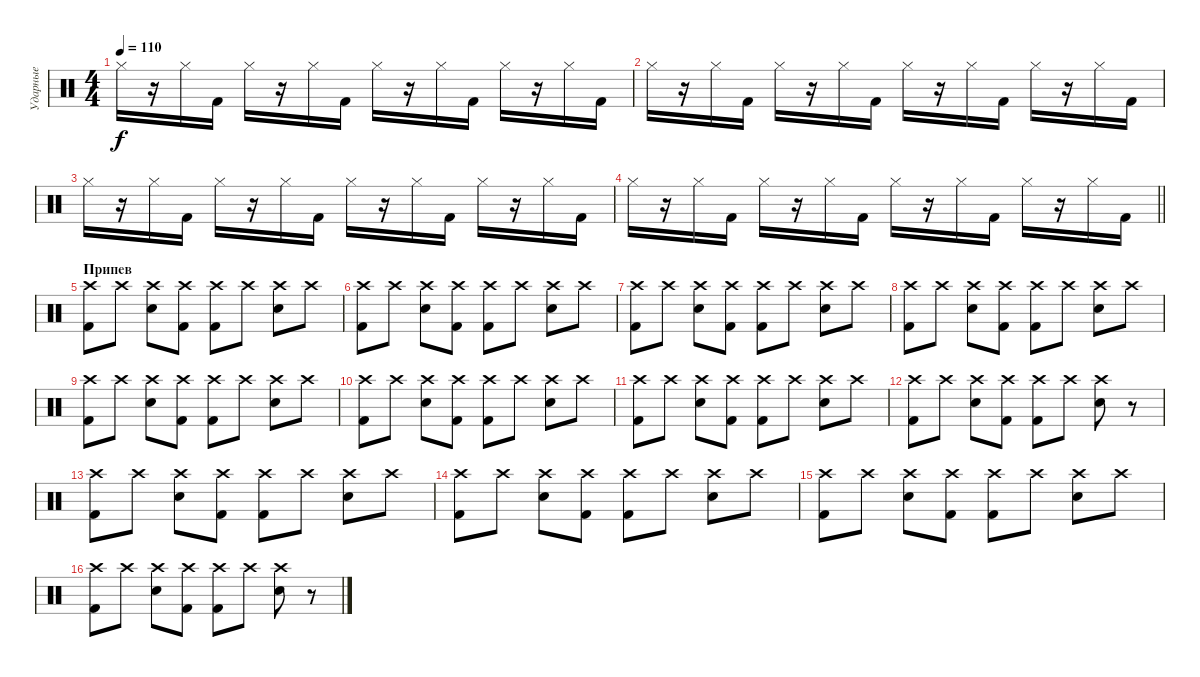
\track ("Ударные" "Ударные") {instrument percussion}
\staff {score}
\articulation defaults
\ts (4 4)
\tempo 110
\clef neutral
\ks c "Hi-Hat (closed)".16{dy f}
r.16 "Hi-Hat (closed)".16 "Kick (hit) 2".16 "Hi-Hat (closed)".16 r.16 "Hi-Hat (closed)".16 "Kick (hit) 2".16 "Hi-Hat (closed)".16 r.16 "Hi-Hat (closed)".16 "Kick (hit) 2".16 "Hi-Hat (closed)".16 r.16 "Hi-Hat (closed)".16 "Kick (hit) 2".16 |
"Hi-Hat (closed)".16 r.16 "Hi-Hat (closed)".16 "Kick (hit) 2".16 "Hi-Hat (closed)".16 r.16 "Hi-Hat (closed)".16 "Kick (hit) 2".16 "Hi-Hat (closed)".16 r.16 "Hi-Hat (closed)".16 "Kick (hit) 2".16 "Hi-Hat (closed)".16 r.16 "Hi-Hat (closed)".16 "Kick (hit) 2".16 |
"Hi-Hat (closed)".16 r.16 "Hi-Hat (closed)".16 "Kick (hit) 2".16 "Hi-Hat (closed)".16 r.16 "Hi-Hat (closed)".16 "Kick (hit) 2".16 "Hi-Hat (closed)".16 r.16 "Hi-Hat (closed)".16 "Kick (hit) 2".16 "Hi-Hat (closed)".16 r.16 "Hi-Hat (closed)".16 "Kick (hit) 2".16 |
\barLineRight lightlight "Hi-Hat (closed)".16
r.16 "Hi-Hat (closed)".16 "Kick (hit) 2".16 "Hi-Hat (closed)".16 r.16 "Hi-Hat (closed)".16 "Kick (hit) 2".16 "Hi-Hat (closed)".16 r.16 "Hi-Hat (closed)".16 "Kick (hit) 2".16 "Hi-Hat (closed)".16 r.16 "Hi-Hat (closed)".16 "Kick (hit) 2".16 |
\section ("" "Припев")
("Crash high (hit)" "Kick (hit) 2").8 "Crash high (hit)".8 ("Crash high (hit)" "Electric Snare (hit)").8 ("Crash high (hit)" "Kick (hit) 2").8 ("Crash high (hit)" "Kick (hit) 2").8 "Crash high (hit)".8 ("Crash high (hit)" "Electric Snare (hit)").8 "Crash high (hit)".8 |
("Crash high (hit)" "Kick (hit) 2").8 "Crash high (hit)".8 ("Crash high (hit)" "Electric Snare (hit)").8 ("Crash high (hit)" "Kick (hit) 2").8 ("Crash high (hit)" "Kick (hit) 2").8 "Crash high (hit)".8 ("Crash high (hit)" "Electric Snare (hit)").8 "Crash high (hit)".8 |
("Crash high (hit)" "Kick (hit) 2").8 "Crash high (hit)".8 ("Crash high (hit)" "Electric Snare (hit)").8 ("Crash high (hit)" "Kick (hit) 2").8 ("Crash high (hit)" "Kick (hit) 2").8 "Crash high (hit)".8 ("Crash high (hit)" "Electric Snare (hit)").8 "Crash high (hit)".8 |
("Crash high (hit)" "Kick (hit) 2").8 "Crash high (hit)".8 ("Crash high (hit)" "Electric Snare (hit)").8 ("Crash high (hit)" "Kick (hit) 2").8 ("Crash high (hit)" "Kick (hit) 2").8 "Crash high (hit)".8 ("Crash high (hit)" "Electric Snare (hit)").8 "Crash high (hit)".8 |
("Crash high (hit)" "Kick (hit) 2").8 "Crash high (hit)".8 ("Crash high (hit)" "Electric Snare (hit)").8 ("Crash high (hit)" "Kick (hit) 2").8 ("Crash high (hit)" "Kick (hit) 2").8 "Crash high (hit)".8 ("Crash high (hit)" "Electric Snare (hit)").8 "Crash high (hit)".8 |
("Crash high (hit)" "Kick (hit) 2").8 "Crash high (hit)".8 ("Crash high (hit)" "Electric Snare (hit)").8 ("Crash high (hit)" "Kick (hit) 2").8 ("Crash high (hit)" "Kick (hit) 2").8 "Crash high (hit)".8 ("Crash high (hit)" "Electric Snare (hit)").8 "Crash high (hit)".8 |
("Crash high (hit)" "Kick (hit) 2").8 "Crash high (hit)".8 ("Crash high (hit)" "Electric Snare (hit)").8 ("Crash high (hit)" "Kick (hit) 2").8 ("Crash high (hit)" "Kick (hit) 2").8 "Crash high (hit)".8 ("Crash high (hit)" "Electric Snare (hit)").8 "Crash high (hit)".8 |
("Crash high (hit)" "Kick (hit) 2").8 "Crash high (hit)".8 ("Crash high (hit)" "Electric Snare (hit)").8 ("Crash high (hit)" "Kick (hit) 2").8 ("Crash high (hit)" "Kick (hit) 2").8 "Crash high (hit)".8 ("Crash high (hit)" "Electric Snare (hit)").8 r.8 |
("Crash high (hit)" "Kick (hit) 2").8 "Crash high (hit)".8 ("Crash high (hit)" "Electric Snare (hit)").8 ("Crash high (hit)" "Kick (hit) 2").8 ("Crash high (hit)" "Kick (hit) 2").8 "Crash high (hit)".8 ("Crash high (hit)" "Electric Snare (hit)").8 "Crash high (hit)".8 |
("Crash high (hit)" "Kick (hit) 2").8 "Crash high (hit)".8 ("Crash high (hit)" "Electric Snare (hit)").8 ("Crash high (hit)" "Kick (hit) 2").8 ("Crash high (hit)" "Kick (hit) 2").8 "Crash high (hit)".8 ("Crash high (hit)" "Electric Snare (hit)").8 "Crash high (hit)".8 |
("Crash high (hit)" "Kick (hit) 2").8 "Crash high (hit)".8 ("Crash high (hit)" "Electric Snare (hit)").8 ("Crash high (hit)" "Kick (hit) 2").8 ("Crash high (hit)" "Kick (hit) 2").8 "Crash high (hit)".8 ("Crash high (hit)" "Electric Snare (hit)").8 "Crash high (hit)".8 |
("Crash high (hit)" "Kick (hit) 2").8 "Crash high (hit)".8 ("Crash high (hit)" "Electric Snare (hit)").8 ("Crash high (hit)" "Kick (hit) 2").8 ("Crash high (hit)" "Kick (hit) 2").8 "Crash high (hit)".8 ("Crash high (hit)" "Electric Snare (hit)").8 r.8
